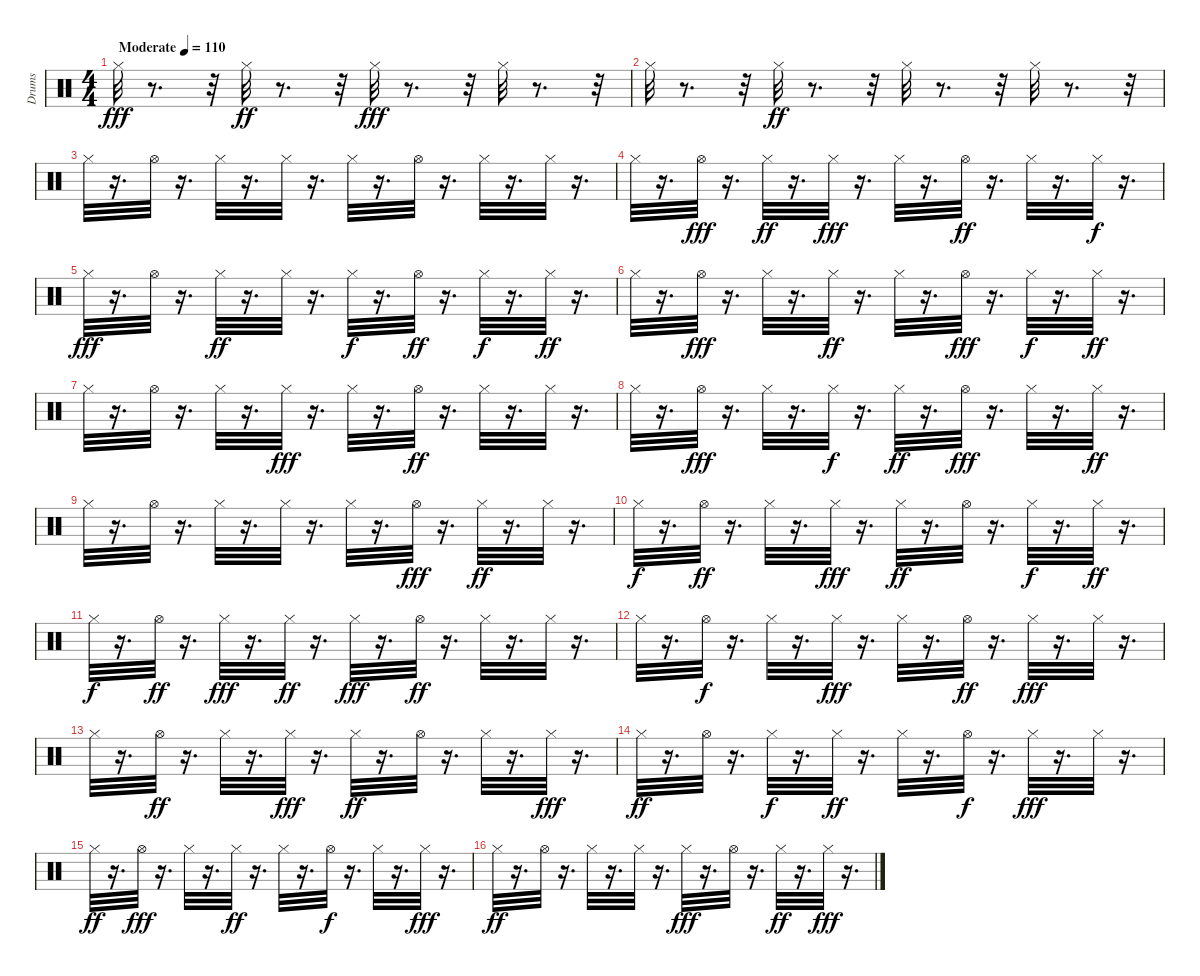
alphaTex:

\track ("Drums" "Drums") {instrument percussion}
\staff {score}
\articulation defaults
\ts (4 4)
\tempo (110 "Moderate")
\clef neutral
\ks c "Hi-Hat (closed)".32{dy fff}
r.8{d} r.32 "Hi-Hat (closed)".32{dy ff} r.8{d} r.32 "Hi-Hat (closed)".32{dy fff} r.8{d} r.32 "Hi-Hat (closed)".32 r.8{d} r.32 |
"Hi-Hat (closed)".32 r.8{d} r.32 "Hi-Hat (closed)".32{dy ff} r.8{d} r.32 "Hi-Hat (closed)".32 r.8{d} r.32 "Hi-Hat (closed)".32 r.8{d} r.32 |
"Hi-Hat (closed)".32 r.16{d} "Hi-Hat (open)".32 r.16{d} "Hi-Hat (closed)".32 r.16{d} "Hi-Hat (closed)".32 r.16{d} "Hi-Hat (closed)".32 r.16{d} "Hi-Hat (open)".32 r.16{d} "Hi-Hat (closed)".32 r.16{d} "Hi-Hat (closed)".32 r.16{d} |
"Hi-Hat (closed)".32 r.16{d} "Hi-Hat (open)".32{dy fff} r.16{d} "Hi-Hat (closed)".32{dy ff} r.16{d} "Hi-Hat (closed)".32{dy fff} r.16{d} "Hi-Hat (closed)".32 r.16{d} "Hi-Hat (open)".32{dy ff} r.16{d} "Hi-Hat (closed)".32 r.16{d} "Hi-Hat (closed)".32{dy f} r.16{d} |
"Hi-Hat (closed)".32{dy fff} r.16{d} "Hi-Hat (open)".32 r.16{d} "Hi-Hat (closed)".32{dy ff} r.16{d} "Hi-Hat (closed)".32 r.16{d} "Hi-Hat (closed)".32{dy f} r.16{d} "Hi-Hat (open)".32{dy ff} r.16{d} "Hi-Hat (closed)".32{dy f} r.16{d} "Hi-Hat (closed)".32{dy ff} r.16{d} |
"Hi-Hat (closed)".32 r.16{d} "Hi-Hat (open)".32{dy fff} r.16{d} "Hi-Hat (closed)".32 r.16{d} "Hi-Hat (closed)".32{dy ff} r.16{d} "Hi-Hat (closed)".32 r.16{d} "Hi-Hat (open)".32{dy fff} r.16{d} "Hi-Hat (closed)".32{dy f} r.16{d} "Hi-Hat (closed)".32{dy ff} r.16{d} |
"Hi-Hat (closed)".32 r.16{d} "Hi-Hat (open)".32 r.16{d} "Hi-Hat (closed)".32 r.16{d} "Hi-Hat (closed)".32{dy fff} r.16{d} "Hi-Hat (closed)".32 r.16{d} "Hi-Hat (open)".32{dy ff} r.16{d} "Hi-Hat (closed)".32 r.16{d} "Hi-Hat (closed)".32 r.16{d} |
"Hi-Hat (closed)".32 r.16{d} "Hi-Hat (open)".32{dy fff} r.16{d} "Hi-Hat (closed)".32 r.16{d} "Hi-Hat (closed)".32{dy f} r.16{d} "Hi-Hat (closed)".32{dy ff} r.16{d} "Hi-Hat (open)".32{dy fff} r.16{d} "Hi-Hat (closed)".32 r.16{d} "Hi-Hat (closed)".32{dy ff} r.16{d} |
"Hi-Hat (closed)".32 r.16{d} "Hi-Hat (open)".32 r.16{d} "Hi-Hat (closed)".32 r.16{d} "Hi-Hat (closed)".32 r.16{d} "Hi-Hat (closed)".32 r.16{d} "Hi-Hat (open)".32{dy fff} r.16{d} "Hi-Hat (closed)".32{dy ff} r.16{d} "Hi-Hat (closed)".32 r.16{d} |
"Hi-Hat (closed)".32{dy f} r.16{d} "Hi-Hat (open)".32{dy ff} r.16{d} "Hi-Hat (closed)".32 r.16{d} "Hi-Hat (closed)".32{dy fff} r.16{d} "Hi-Hat (closed)".32{dy ff} r.16{d} "Hi-Hat (open)".32 r.16{d} "Hi-Hat (closed)".32{dy f} r.16{d} "Hi-Hat (closed)".32{dy ff} r.16{d} |
"Hi-Hat (closed)".32{dy f} r.16{d} "Hi-Hat (open)".32{dy ff} r.16{d} "Hi-Hat (closed)".32{dy fff} r.16{d} "Hi-Hat (closed)".32{dy ff} r.16{d} "Hi-Hat (closed)".32{dy fff} r.16{d} "Hi-Hat (open)".32{dy ff} r.16{d} "Hi-Hat (closed)".32 r.16{d} "Hi-Hat (closed)".32 r.16{d} |
"Hi-Hat (closed)".32 r.16{d} "Hi-Hat (open)".32{dy f} r.16{d} "Hi-Hat (closed)".32 r.16{d} "Hi-Hat (closed)".32{dy fff} r.16{d} "Hi-Hat (closed)".32 r.16{d} "Hi-Hat (open)".32{dy ff} r.16{d} "Hi-Hat (closed)".32{dy fff} r.16{d} "Hi-Hat (closed)".32 r.16{d} |
"Hi-Hat (closed)".32 r.16{d} "Hi-Hat (open)".32{dy ff} r.16{d} "Hi-Hat (closed)".32 r.16{d} "Hi-Hat (closed)".32{dy fff} r.16{d} "Hi-Hat (closed)".32{dy ff} r.16{d} "Hi-Hat (open)".32 r.16{d} "Hi-Hat (closed)".32 r.16{d} "Hi-Hat (closed)".32{dy fff} r.16{d} |
"Hi-Hat (closed)".32{dy ff} r.16{d} "Hi-Hat (open)".32 r.16{d} "Hi-Hat (closed)".32{dy f} r.16{d} "Hi-Hat (closed)".32{dy ff} r.16{d} "Hi-Hat (closed)".32 r.16{d} "Hi-Hat (open)".32{dy f} r.16{d} "Hi-Hat (closed)".32{dy fff} r.16{d} "Hi-Hat (closed)".32 r.16{d} |
"Hi-Hat (closed)".32{dy ff} r.16{d} "Hi-Hat (open)".32{dy fff} r.16{d} "Hi-Hat (closed)".32 r.16{d} "Hi-Hat (closed)".32{dy ff} r.16{d} "Hi-Hat (closed)".32 r.16{d} "Hi-Hat (open)".32{dy f} r.16{d} "Hi-Hat (closed)".32 r.16{d} "Hi-Hat (closed)".32{dy fff} r.16{d} |
"Hi-Hat (closed)".32{dy ff} r.16{d} "Hi-Hat (open)".32 r.16{d} "Hi-Hat (closed)".32 r.16{d} "Hi-Hat (closed)".32 r.16{d} "Hi-Hat (closed)".32{dy fff} r.16{d} "Hi-Hat (open)".32 r.16{d} "Hi-Hat (closed)".32{dy ff} r.16{d} "Hi-Hat (closed)".32{dy fff} r.16{d}
